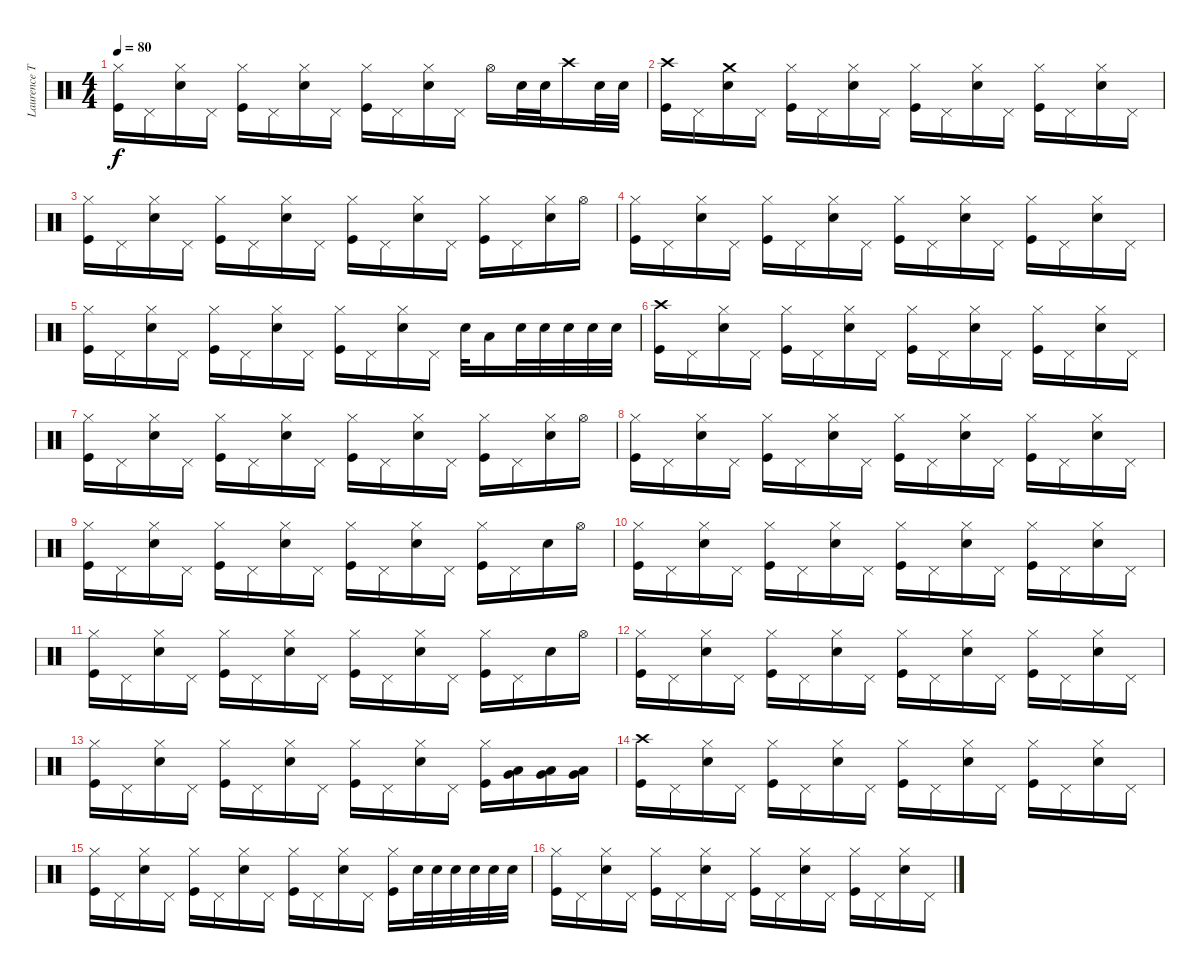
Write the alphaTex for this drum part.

\track ("Laurence Tolhurst (drums)" "Laurence T") {instrument percussion}
\staff {score}
\articulation defaults
\ts (4 4)
\tempo 80
\clef neutral
\ks c
("Kick (hit)" "Hi-Hat (closed)").16{dy f} "Pedal Hi-Hat (hit)".16 ("Snare (hit) 2" "Hi-Hat (closed)").16 "Pedal Hi-Hat (hit)".16 ("Kick (hit)" "Hi-Hat (closed)").16 "Pedal Hi-Hat (hit)".16 ("Snare (hit) 2" "Hi-Hat (closed)").16 "Pedal Hi-Hat (hit)".16 ("Kick (hit)" "Hi-Hat (closed)").16 "Pedal Hi-Hat (hit)".16 ("Snare (hit) 2" "Hi-Hat (closed)").16 "Pedal Hi-Hat (hit)".16 "Hi-Hat (open)".16 "Snare (hit) 2".32 "Snare (hit) 2".32 "Crash high (hit)".16 "Snare (hit) 2".32 "Snare (hit) 2".32 |
("Kick (hit)" "Crash high (hit)").16 "Pedal Hi-Hat (hit)".16 ("Snare (hit) 2" "Crash medium (hit)").16 "Pedal Hi-Hat (hit)".16 ("Kick (hit)" "Hi-Hat (closed)").16 "Pedal Hi-Hat (hit)".16 ("Snare (hit) 2" "Hi-Hat (closed)").16 "Pedal Hi-Hat (hit)".16 ("Kick (hit)" "Hi-Hat (closed)").16 "Pedal Hi-Hat (hit)".16 ("Snare (hit) 2" "Hi-Hat (closed)").16 "Pedal Hi-Hat (hit)".16 ("Kick (hit)" "Hi-Hat (closed)").16 "Pedal Hi-Hat (hit)".16 ("Snare (hit) 2" "Hi-Hat (closed)").16 "Pedal Hi-Hat (hit)".16 |
("Kick (hit)" "Hi-Hat (closed)").16 "Pedal Hi-Hat (hit)".16 ("Snare (hit) 2" "Hi-Hat (closed)").16 "Pedal Hi-Hat (hit)".16 ("Kick (hit)" "Hi-Hat (closed)").16 "Pedal Hi-Hat (hit)".16 ("Snare (hit) 2" "Hi-Hat (closed)").16 "Pedal Hi-Hat (hit)".16 ("Kick (hit)" "Hi-Hat (closed)").16 "Pedal Hi-Hat (hit)".16 ("Snare (hit) 2" "Hi-Hat (closed)").16 "Pedal Hi-Hat (hit)".16 ("Kick (hit)" "Hi-Hat (closed)").16 "Pedal Hi-Hat (hit)".16 ("Snare (hit) 2" "Hi-Hat (closed)").16 "Hi-Hat (open)".16 |
("Kick (hit)" "Hi-Hat (closed)").16 "Pedal Hi-Hat (hit)".16 ("Snare (hit) 2" "Hi-Hat (closed)").16 "Pedal Hi-Hat (hit)".16 ("Kick (hit)" "Hi-Hat (closed)").16 "Pedal Hi-Hat (hit)".16 ("Snare (hit) 2" "Hi-Hat (closed)").16 "Pedal Hi-Hat (hit)".16 ("Kick (hit)" "Hi-Hat (closed)").16 "Pedal Hi-Hat (hit)".16 ("Snare (hit) 2" "Hi-Hat (closed)").16 "Pedal Hi-Hat (hit)".16 ("Kick (hit)" "Hi-Hat (closed)").16 "Pedal Hi-Hat (hit)".16 ("Snare (hit) 2" "Hi-Hat (closed)").16 "Pedal Hi-Hat (hit)".16 |
("Kick (hit)" "Hi-Hat (closed)").16 "Pedal Hi-Hat (hit)".16 ("Snare (hit) 2" "Hi-Hat (closed)").16 "Pedal Hi-Hat (hit)".16 ("Kick (hit)" "Hi-Hat (closed)").16 "Pedal Hi-Hat (hit)".16 ("Snare (hit) 2" "Hi-Hat (closed)").16 "Pedal Hi-Hat (hit)".16 ("Kick (hit)" "Hi-Hat (closed)").16 "Pedal Hi-Hat (hit)".16 ("Snare (hit) 2" "Hi-Hat (closed)").16 "Pedal Hi-Hat (hit)".16 "Snare (hit) 2".32 "Low Tom (hit)".16 "Snare (hit) 2".32 "Snare (hit) 2".32 "Snare (hit) 2".32 "Snare (hit) 2".32 "Snare (hit) 2".32 |
("Kick (hit)" "Crash high (hit)").16 "Pedal Hi-Hat (hit)".16 ("Snare (hit) 2" "Hi-Hat (closed)").16 "Pedal Hi-Hat (hit)".16 ("Kick (hit)" "Hi-Hat (closed)").16 "Pedal Hi-Hat (hit)".16 ("Snare (hit) 2" "Hi-Hat (closed)").16 "Pedal Hi-Hat (hit)".16 ("Kick (hit)" "Hi-Hat (closed)").16 "Pedal Hi-Hat (hit)".16 ("Snare (hit) 2" "Hi-Hat (closed)").16 "Pedal Hi-Hat (hit)".16 ("Kick (hit)" "Hi-Hat (closed)").16 "Pedal Hi-Hat (hit)".16 ("Snare (hit) 2" "Hi-Hat (closed)").16 "Pedal Hi-Hat (hit)".16 |
("Kick (hit)" "Hi-Hat (closed)").16 "Pedal Hi-Hat (hit)".16 ("Snare (hit) 2" "Hi-Hat (closed)").16 "Pedal Hi-Hat (hit)".16 ("Kick (hit)" "Hi-Hat (closed)").16 "Pedal Hi-Hat (hit)".16 ("Snare (hit) 2" "Hi-Hat (closed)").16 "Pedal Hi-Hat (hit)".16 ("Kick (hit)" "Hi-Hat (closed)").16 "Pedal Hi-Hat (hit)".16 ("Snare (hit) 2" "Hi-Hat (closed)").16 "Pedal Hi-Hat (hit)".16 ("Kick (hit)" "Hi-Hat (closed)").16 "Pedal Hi-Hat (hit)".16 ("Snare (hit) 2" "Hi-Hat (closed)").16 "Hi-Hat (open)".16 |
("Kick (hit)" "Hi-Hat (closed)").16 "Pedal Hi-Hat (hit)".16 ("Snare (hit) 2" "Hi-Hat (closed)").16 "Pedal Hi-Hat (hit)".16 ("Kick (hit)" "Hi-Hat (closed)").16 "Pedal Hi-Hat (hit)".16 ("Snare (hit) 2" "Hi-Hat (closed)").16 "Pedal Hi-Hat (hit)".16 ("Kick (hit)" "Hi-Hat (closed)").16 "Pedal Hi-Hat (hit)".16 ("Snare (hit) 2" "Hi-Hat (closed)").16 "Pedal Hi-Hat (hit)".16 ("Kick (hit)" "Hi-Hat (closed)").16 "Pedal Hi-Hat (hit)".16 ("Snare (hit) 2" "Hi-Hat (closed)").16 "Pedal Hi-Hat (hit)".16 |
("Kick (hit)" "Hi-Hat (closed)").16 "Pedal Hi-Hat (hit)".16 ("Snare (hit) 2" "Hi-Hat (closed)").16 "Pedal Hi-Hat (hit)".16 ("Kick (hit)" "Hi-Hat (closed)").16 "Pedal Hi-Hat (hit)".16 ("Snare (hit) 2" "Hi-Hat (closed)").16 "Pedal Hi-Hat (hit)".16 ("Kick (hit)" "Hi-Hat (closed)").16 "Pedal Hi-Hat (hit)".16 ("Snare (hit) 2" "Hi-Hat (closed)").16 "Pedal Hi-Hat (hit)".16 ("Kick (hit)" "Hi-Hat (closed)").16 "Pedal Hi-Hat (hit)".16 "Snare (hit) 2".16 "Hi-Hat (open)".16 |
("Kick (hit)" "Hi-Hat (closed)").16 "Pedal Hi-Hat (hit)".16 ("Snare (hit) 2" "Hi-Hat (closed)").16 "Pedal Hi-Hat (hit)".16 ("Kick (hit)" "Hi-Hat (closed)").16 "Pedal Hi-Hat (hit)".16 ("Snare (hit) 2" "Hi-Hat (closed)").16 "Pedal Hi-Hat (hit)".16 ("Kick (hit)" "Hi-Hat (closed)").16 "Pedal Hi-Hat (hit)".16 ("Snare (hit) 2" "Hi-Hat (closed)").16 "Pedal Hi-Hat (hit)".16 ("Kick (hit)" "Hi-Hat (closed)").16 "Pedal Hi-Hat (hit)".16 ("Snare (hit) 2" "Hi-Hat (closed)").16 "Pedal Hi-Hat (hit)".16 |
("Kick (hit)" "Hi-Hat (closed)").16 "Pedal Hi-Hat (hit)".16 ("Snare (hit) 2" "Hi-Hat (closed)").16 "Pedal Hi-Hat (hit)".16 ("Kick (hit)" "Hi-Hat (closed)").16 "Pedal Hi-Hat (hit)".16 ("Snare (hit) 2" "Hi-Hat (closed)").16 "Pedal Hi-Hat (hit)".16 ("Kick (hit)" "Hi-Hat (closed)").16 "Pedal Hi-Hat (hit)".16 ("Snare (hit) 2" "Hi-Hat (closed)").16 "Pedal Hi-Hat (hit)".16 ("Kick (hit)" "Hi-Hat (closed)").16 "Pedal Hi-Hat (hit)".16 "Snare (hit) 2".16 "Hi-Hat (open)".16 |
("Kick (hit)" "Hi-Hat (closed)").16 "Pedal Hi-Hat (hit)".16 ("Snare (hit) 2" "Hi-Hat (closed)").16 "Pedal Hi-Hat (hit)".16 ("Kick (hit)" "Hi-Hat (closed)").16 "Pedal Hi-Hat (hit)".16 ("Snare (hit) 2" "Hi-Hat (closed)").16 "Pedal Hi-Hat (hit)".16 ("Kick (hit)" "Hi-Hat (closed)").16 "Pedal Hi-Hat (hit)".16 ("Snare (hit) 2" "Hi-Hat (closed)").16 "Pedal Hi-Hat (hit)".16 ("Kick (hit)" "Hi-Hat (closed)").16 "Pedal Hi-Hat (hit)".16 ("Snare (hit) 2" "Hi-Hat (closed)").16 "Pedal Hi-Hat (hit)".16 |
("Kick (hit)" "Hi-Hat (closed)").16 "Pedal Hi-Hat (hit)".16 ("Snare (hit) 2" "Hi-Hat (closed)").16 "Pedal Hi-Hat (hit)".16 ("Kick (hit)" "Hi-Hat (closed)").16 "Pedal Hi-Hat (hit)".16 ("Snare (hit) 2" "Hi-Hat (closed)").16 "Pedal Hi-Hat (hit)".16 ("Kick (hit)" "Hi-Hat (closed)").16 "Pedal Hi-Hat (hit)".16 ("Snare (hit) 2" "Hi-Hat (closed)").16 "Pedal Hi-Hat (hit)".16 ("Kick (hit)" "Hi-Hat (closed)").16 ("Very Low Tom (hit)" "Low Floor Tom (hit)").16 ("Very Low Tom (hit)" "Low Floor Tom (hit)").16 ("Very Low Tom (hit)" "Low Floor Tom (hit)").16 |
("Kick (hit)" "Crash high (hit)").16 "Pedal Hi-Hat (hit)".16 ("Snare (hit) 2" "Hi-Hat (closed)").16 "Pedal Hi-Hat (hit)".16 ("Kick (hit)" "Hi-Hat (closed)").16 "Pedal Hi-Hat (hit)".16 ("Snare (hit) 2" "Hi-Hat (closed)").16 "Pedal Hi-Hat (hit)".16 ("Kick (hit)" "Hi-Hat (closed)").16 "Pedal Hi-Hat (hit)".16 ("Snare (hit) 2" "Hi-Hat (closed)").16 "Pedal Hi-Hat (hit)".16 ("Kick (hit)" "Hi-Hat (closed)").16 "Pedal Hi-Hat (hit)".16 ("Snare (hit) 2" "Hi-Hat (closed)").16 "Pedal Hi-Hat (hit)".16 |
("Kick (hit)" "Hi-Hat (closed)").16 "Pedal Hi-Hat (hit)".16 ("Snare (hit) 2" "Hi-Hat (closed)").16 "Pedal Hi-Hat (hit)".16 ("Kick (hit)" "Hi-Hat (closed)").16 "Pedal Hi-Hat (hit)".16 ("Snare (hit) 2" "Hi-Hat (closed)").16 "Pedal Hi-Hat (hit)".16 ("Kick (hit)" "Hi-Hat (closed)").16 "Pedal Hi-Hat (hit)".16 ("Snare (hit) 2" "Hi-Hat (closed)").16 "Pedal Hi-Hat (hit)".16 ("Kick (hit)" "Hi-Hat (closed)").16 "Snare (hit) 2".32 "Snare (hit) 2".32 "Snare (hit) 2".32 "Snare (hit) 2".32 "Snare (hit) 2".32 "Snare (hit) 2".32 |
("Kick (hit)" "Hi-Hat (closed)").16 "Pedal Hi-Hat (hit)".16 ("Snare (hit) 2" "Hi-Hat (closed)").16 "Pedal Hi-Hat (hit)".16 ("Kick (hit)" "Hi-Hat (closed)").16 "Pedal Hi-Hat (hit)".16 ("Snare (hit) 2" "Hi-Hat (closed)").16 "Pedal Hi-Hat (hit)".16 ("Kick (hit)" "Hi-Hat (closed)").16 "Pedal Hi-Hat (hit)".16 ("Snare (hit) 2" "Hi-Hat (closed)").16 "Pedal Hi-Hat (hit)".16 ("Kick (hit)" "Hi-Hat (closed)").16 "Pedal Hi-Hat (hit)".16 ("Snare (hit) 2" "Hi-Hat (closed)").16 "Pedal Hi-Hat (hit)".16
